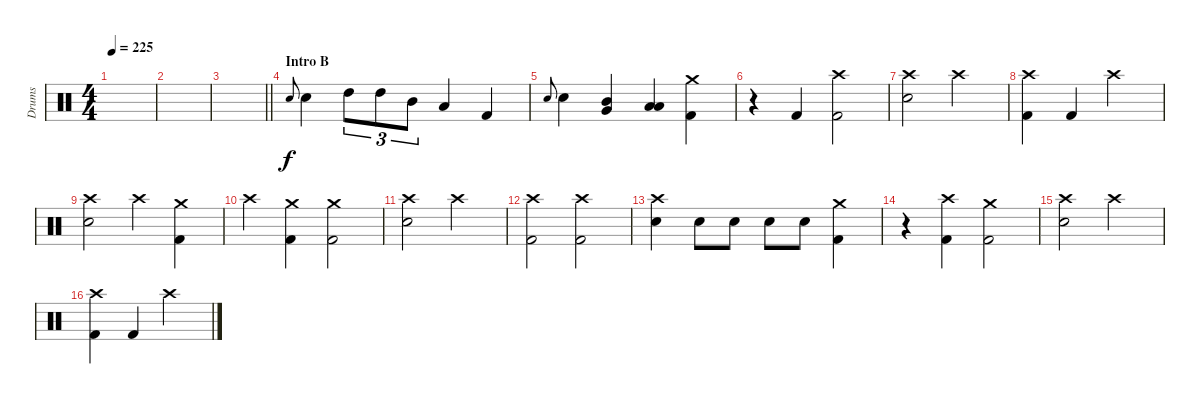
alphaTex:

\track ("Drums" "Drums") {instrument percussion}
\staff {score}
\articulation defaults
\ts (4 4)
\tempo 225
\clef neutral
\ks c
|
|
\barLineRight lightlight
|
\section ("" "Intro B")
"Electric Snare (hit)".8{gr onbeat} "Electric Snare (hit)".4 "High Tom (hit)".8{tu (3 2)} "High Tom (hit)".8{tu (3 2)} "Mid Tom (hit)".8{tu (3 2)} "Low Tom (hit)".4 "Kick (hit) 2".4 |
"Electric Snare (hit)".8{gr onbeat} "Electric Snare (hit)".4 ("Mid Tom (hit)" "Very Low Tom (hit)").4 ("Low Tom (hit)" "Low Floor Tom (hit)").4 ("Kick (hit) 2" "Crash medium (hit)").4 |
r.4 "Kick (hit) 2".4 ("Kick (hit) 2" "Crash high (hit)").2 |
("Electric Snare (hit)" "Crash high (hit)").2 "Crash high (hit)".2 |
("Crash high (hit)" "Kick (hit) 2").4 "Kick (hit) 2".4 "Crash high (hit)".2 |
("Electric Snare (hit)" "Crash high (hit)").2 "Crash high (hit)".4 ("Kick (hit) 2" "Crash medium (hit)").4 |
"Crash high (hit)".4 ("Kick (hit) 2" "Crash medium (hit)").4 ("Kick (hit) 2" "Crash medium (hit)").2 |
("Electric Snare (hit)" "Crash high (hit)").2 "Crash high (hit)".2 |
("Crash high (hit)" "Kick (hit) 2").2 ("Kick (hit) 2" "Crash high (hit)").2 |
("Crash high (hit)" "Electric Snare (hit)").4 "Electric Snare (hit)".8 "Electric Snare (hit)".8 "Electric Snare (hit)".8 "Electric Snare (hit)".8 ("Crash medium (hit)" "Kick (hit) 2").4 |
r.4 ("Kick (hit) 2" "Crash high (hit)").4 ("Kick (hit) 2" "Crash medium (hit)").2 |
("Crash high (hit)" "Electric Snare (hit)").2 "Crash high (hit)".2 |
("Crash high (hit)" "Kick (hit) 2").4 "Kick (hit) 2".4 "Crash high (hit)".2
